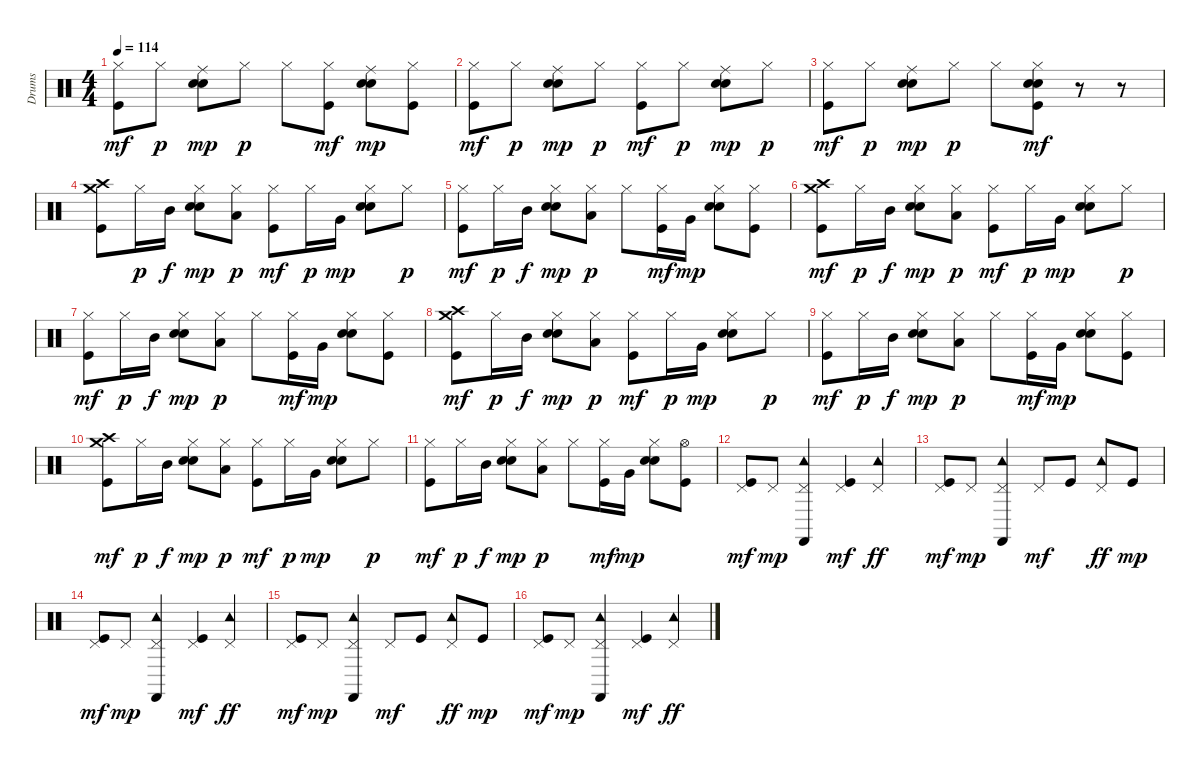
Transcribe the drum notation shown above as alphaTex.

\track ("Drums" "Drums") {instrument percussion}
\staff {score}
\articulation defaults
\ts (4 4)
\tempo 114
\clef neutral
\ks c
("Hi-Hat (closed)" "Kick (hit)").8{dy mf} "Hi-Hat (closed)".8{dy p} ("Ride (middle)" "Snare (hit) 2" "Electric Snare (hit)").8{dy mp} "Hi-Hat (closed)".8{dy p} "Hi-Hat (closed)".8 ("Hi-Hat (closed)" "Kick (hit)").8{dy mf} ("Ride (middle)" "Snare (hit) 2" "Electric Snare (hit)").8{dy mp} ("Hi-Hat (closed)" "Kick (hit)").8 |
("Hi-Hat (closed)" "Kick (hit)").8{dy mf} "Hi-Hat (closed)".8{dy p} ("Ride (middle)" "Snare (hit) 2" "Electric Snare (hit)").8{dy mp} "Hi-Hat (closed)".8{dy p} ("Hi-Hat (closed)" "Kick (hit)").8{dy mf} "Hi-Hat (closed)".8{dy p} ("Ride (middle)" "Snare (hit) 2" "Electric Snare (hit)").8{dy mp} "Hi-Hat (closed)".8{dy p} |
("Hi-Hat (closed)" "Kick (hit)").8{dy mf} "Hi-Hat (closed)".8{dy p} ("Ride (middle)" "Snare (hit) 2" "Electric Snare (hit)").8{dy mp} "Hi-Hat (closed)".8{dy p} "Hi-Hat (closed)".8 ("Hi-Hat (closed)" "Snare (hit) 2" "Electric Snare (hit)" "Kick (hit)").8{dy mf} r.8 r.8 |
("Crash medium (hit)" "Crash high (hit)" "Kick (hit)").8 "Hi-Hat (closed)".16{dy p} "Mid Tom (hit)".16{dy f} ("Hi-Hat (closed)" "Snare (hit) 2" "Electric Snare (hit)").8{dy mp} ("Hi-Hat (closed)" "Low Tom (hit)").8{dy p} ("Hi-Hat (closed)" "Kick (hit)").8{dy mf} "Hi-Hat (closed)".16{dy p} "Very Low Tom (hit)".16{dy mp} ("Hi-Hat (closed)" "Snare (hit) 2" "Electric Snare (hit)").8 "Hi-Hat (closed)".8{dy p} |
("Hi-Hat (closed)" "Kick (hit)").8{dy mf} "Hi-Hat (closed)".16{dy p} "Mid Tom (hit)".16{dy f} ("Hi-Hat (closed)" "Snare (hit) 2" "Electric Snare (hit)").8{dy mp} ("Hi-Hat (closed)" "Low Tom (hit)").8{dy p} "Hi-Hat (closed)".8 ("Hi-Hat (closed)" "Kick (hit)").16{dy mf} "Very Low Tom (hit)".16{dy mp} ("Hi-Hat (closed)" "Snare (hit) 2" "Electric Snare (hit)").8 ("Hi-Hat (closed)" "Kick (hit)").8 |
("Crash medium (hit)" "Crash high (hit)" "Kick (hit)").8{dy mf} "Hi-Hat (closed)".16{dy p} "Mid Tom (hit)".16{dy f} ("Hi-Hat (closed)" "Snare (hit) 2" "Electric Snare (hit)").8{dy mp} ("Hi-Hat (closed)" "Low Tom (hit)").8{dy p} ("Hi-Hat (closed)" "Kick (hit)").8{dy mf} "Hi-Hat (closed)".16{dy p} "Very Low Tom (hit)".16{dy mp} ("Hi-Hat (closed)" "Snare (hit) 2" "Electric Snare (hit)").8 "Hi-Hat (closed)".8{dy p} |
("Hi-Hat (closed)" "Kick (hit)").8{dy mf} "Hi-Hat (closed)".16{dy p} "Mid Tom (hit)".16{dy f} ("Hi-Hat (closed)" "Snare (hit) 2" "Electric Snare (hit)").8{dy mp} ("Hi-Hat (closed)" "Low Tom (hit)").8{dy p} "Hi-Hat (closed)".8 ("Hi-Hat (closed)" "Kick (hit)").16{dy mf} "Very Low Tom (hit)".16{dy mp} ("Hi-Hat (closed)" "Snare (hit) 2" "Electric Snare (hit)").8 ("Hi-Hat (closed)" "Kick (hit)").8 |
("Crash medium (hit)" "Crash high (hit)" "Kick (hit)").8{dy mf} "Hi-Hat (closed)".16{dy p} "Mid Tom (hit)".16{dy f} ("Hi-Hat (closed)" "Snare (hit) 2" "Electric Snare (hit)").8{dy mp} ("Hi-Hat (closed)" "Low Tom (hit)").8{dy p} ("Hi-Hat (closed)" "Kick (hit)").8{dy mf} "Hi-Hat (closed)".16{dy p} "Very Low Tom (hit)".16{dy mp} ("Hi-Hat (closed)" "Snare (hit) 2" "Electric Snare (hit)").8 "Hi-Hat (closed)".8{dy p} |
("Hi-Hat (closed)" "Kick (hit)").8{dy mf} "Hi-Hat (closed)".16{dy p} "Mid Tom (hit)".16{dy f} ("Hi-Hat (closed)" "Snare (hit) 2" "Electric Snare (hit)").8{dy mp} ("Hi-Hat (closed)" "Low Tom (hit)").8{dy p} "Hi-Hat (closed)".8 ("Hi-Hat (closed)" "Kick (hit)").16{dy mf} "Very Low Tom (hit)".16{dy mp} ("Hi-Hat (closed)" "Snare (hit) 2" "Electric Snare (hit)").8 ("Hi-Hat (closed)" "Kick (hit)").8 |
("Crash medium (hit)" "Crash high (hit)" "Kick (hit)").8{dy mf} "Hi-Hat (closed)".16{dy p} "Mid Tom (hit)".16{dy f} ("Hi-Hat (closed)" "Snare (hit) 2" "Electric Snare (hit)").8{dy mp} ("Hi-Hat (closed)" "Low Tom (hit)").8{dy p} ("Hi-Hat (closed)" "Kick (hit)").8{dy mf} "Hi-Hat (closed)".16{dy p} "Very Low Tom (hit)".16{dy mp} ("Hi-Hat (closed)" "Snare (hit) 2" "Electric Snare (hit)").8 "Hi-Hat (closed)".8{dy p} |
("Hi-Hat (closed)" "Kick (hit)").8{dy mf} "Hi-Hat (closed)".16{dy p} "Mid Tom (hit)".16{dy f} ("Hi-Hat (closed)" "Snare (hit) 2" "Electric Snare (hit)").8{dy mp} ("Hi-Hat (closed)" "Low Tom (hit)").8{dy p} "Hi-Hat (closed)".8 ("Hi-Hat (closed)" "Kick (hit)").16{dy mf} "Very Low Tom (hit)".16{dy mp} ("Hi-Hat (closed)" "Snare (hit) 2" "Electric Snare (hit)").8 ("Hi-Hat (open)" "Kick (hit)").8 |
("Pedal Hi-Hat (hit)" "Kick (hit)").8{dy mf} "Pedal Hi-Hat (hit)".8{dy mp} ("Pedal Hi-Hat (hit)" "Tambourine (hit)" "Castanets (hit)").4 ("Pedal Hi-Hat (hit)" "Kick (hit)").4{dy mf} ("Pedal Hi-Hat (hit)" "Tambourine (hit)").4{dy ff} |
("Pedal Hi-Hat (hit)" "Kick (hit)").8{dy mf} "Pedal Hi-Hat (hit)".8{dy mp} ("Pedal Hi-Hat (hit)" "Tambourine (hit)" "Castanets (hit)").4 "Pedal Hi-Hat (hit)".8{dy mf} "Kick (hit)".8 ("Pedal Hi-Hat (hit)" "Tambourine (hit)").8{dy ff} "Kick (hit)".8{dy mp} |
("Pedal Hi-Hat (hit)" "Kick (hit)").8{dy mf} "Pedal Hi-Hat (hit)".8{dy mp} ("Pedal Hi-Hat (hit)" "Tambourine (hit)" "Castanets (hit)").4 ("Pedal Hi-Hat (hit)" "Kick (hit)").4{dy mf} ("Pedal Hi-Hat (hit)" "Tambourine (hit)").4{dy ff} |
("Pedal Hi-Hat (hit)" "Kick (hit)").8{dy mf} "Pedal Hi-Hat (hit)".8{dy mp} ("Pedal Hi-Hat (hit)" "Tambourine (hit)" "Castanets (hit)").4 "Pedal Hi-Hat (hit)".8{dy mf} "Kick (hit)".8 ("Pedal Hi-Hat (hit)" "Tambourine (hit)").8{dy ff} "Kick (hit)".8{dy mp} |
("Pedal Hi-Hat (hit)" "Kick (hit)").8{dy mf} "Pedal Hi-Hat (hit)".8{dy mp} ("Pedal Hi-Hat (hit)" "Tambourine (hit)" "Castanets (hit)").4 ("Pedal Hi-Hat (hit)" "Kick (hit)").4{dy mf} ("Pedal Hi-Hat (hit)" "Tambourine (hit)").4{dy ff}
